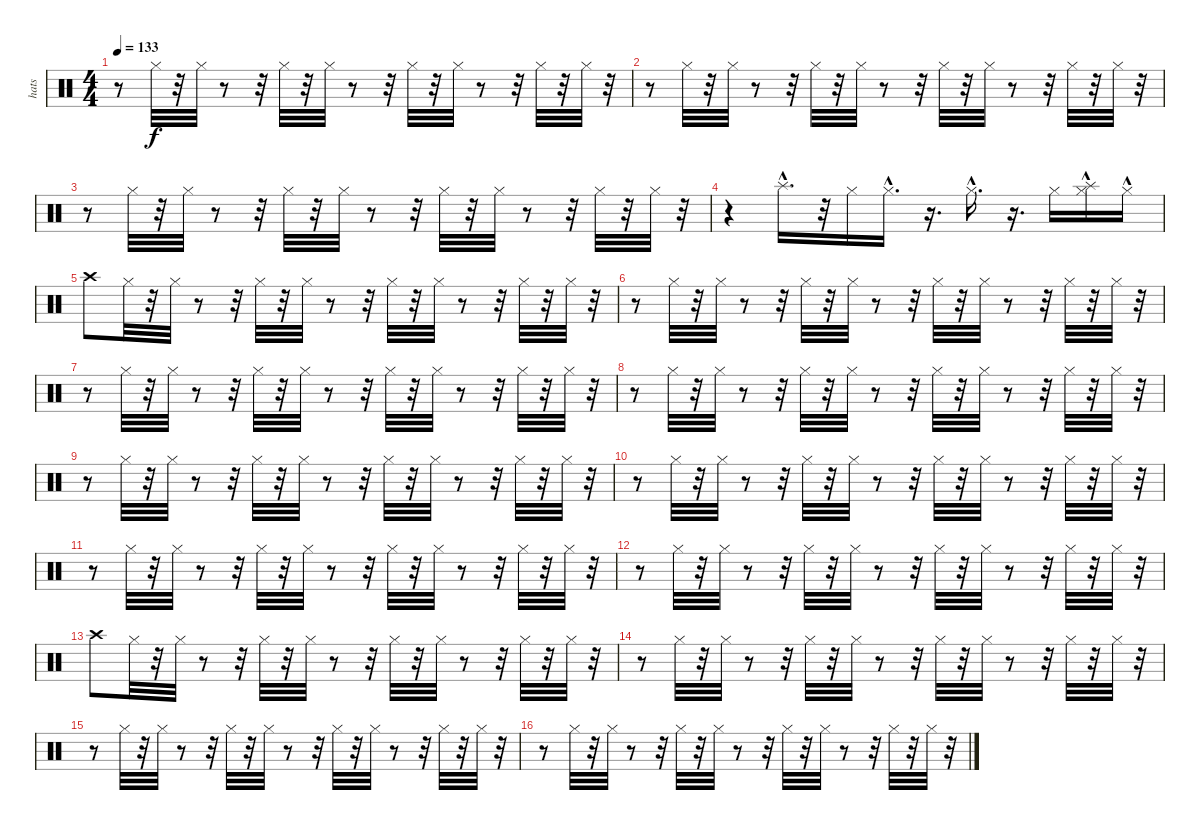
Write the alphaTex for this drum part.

\track ("hats" "hats") {instrument percussion}
\staff {score}
\articulation defaults
\ts (4 4)
\tempo 133
\clef neutral
\ks c
r.8{dy f} "Hi-Hat (closed)".32 r.32 "Hi-Hat (closed)".32 r.8 r.32 "Hi-Hat (closed)".32 r.32 "Hi-Hat (closed)".32 r.8 r.32 "Hi-Hat (closed)".32 r.32 "Hi-Hat (closed)".32 r.8 r.32 "Hi-Hat (closed)".32 r.32 "Hi-Hat (closed)".32 r.32 |
r.8 "Hi-Hat (closed)".32 r.32 "Hi-Hat (closed)".32 r.8 r.32 "Hi-Hat (closed)".32 r.32 "Hi-Hat (closed)".32 r.8 r.32 "Hi-Hat (closed)".32 r.32 "Hi-Hat (closed)".32 r.8 r.32 "Hi-Hat (closed)".32 r.32 "Hi-Hat (closed)".32 r.32 |
r.8 "Hi-Hat (closed)".32 r.32 "Hi-Hat (closed)".32 r.8 r.32 "Hi-Hat (closed)".32 r.32 "Hi-Hat (closed)".32 r.8 r.32 "Hi-Hat (closed)".32 r.32 "Hi-Hat (closed)".32 r.8 r.32 "Hi-Hat (closed)".32 r.32 "Hi-Hat (closed)".32 r.32 |
r.4 "Splash (hit)"{hac}.16{d} r.32 "Hi-Hat (closed)".16 "Hi-Hat (closed)"{hac}.16{d} r.16{d} "Hi-Hat (closed)"{hac}.16{d} r.16{d} "Hi-Hat (closed)".16 ("Hi-Hat (closed)" "Splash (hit)"{hac}).16 "Hi-Hat (closed)"{hac}.16 |
"Crash high (hit)".8 "Hi-Hat (closed)".32 r.32 "Hi-Hat (closed)".32 r.8 r.32 "Hi-Hat (closed)".32 r.32 "Hi-Hat (closed)".32 r.8 r.32 "Hi-Hat (closed)".32 r.32 "Hi-Hat (closed)".32 r.8 r.32 "Hi-Hat (closed)".32 r.32 "Hi-Hat (closed)".32 r.32 |
r.8 "Hi-Hat (closed)".32 r.32 "Hi-Hat (closed)".32 r.8 r.32 "Hi-Hat (closed)".32 r.32 "Hi-Hat (closed)".32 r.8 r.32 "Hi-Hat (closed)".32 r.32 "Hi-Hat (closed)".32 r.8 r.32 "Hi-Hat (closed)".32 r.32 "Hi-Hat (closed)".32 r.32 |
r.8 "Hi-Hat (closed)".32 r.32 "Hi-Hat (closed)".32 r.8 r.32 "Hi-Hat (closed)".32 r.32 "Hi-Hat (closed)".32 r.8 r.32 "Hi-Hat (closed)".32 r.32 "Hi-Hat (closed)".32 r.8 r.32 "Hi-Hat (closed)".32 r.32 "Hi-Hat (closed)".32 r.32 |
r.8 "Hi-Hat (closed)".32 r.32 "Hi-Hat (closed)".32 r.8 r.32 "Hi-Hat (closed)".32 r.32 "Hi-Hat (closed)".32 r.8 r.32 "Hi-Hat (closed)".32 r.32 "Hi-Hat (closed)".32 r.8 r.32 "Hi-Hat (closed)".32 r.32 "Hi-Hat (closed)".32 r.32 |
r.8 "Hi-Hat (closed)".32 r.32 "Hi-Hat (closed)".32 r.8 r.32 "Hi-Hat (closed)".32 r.32 "Hi-Hat (closed)".32 r.8 r.32 "Hi-Hat (closed)".32 r.32 "Hi-Hat (closed)".32 r.8 r.32 "Hi-Hat (closed)".32 r.32 "Hi-Hat (closed)".32 r.32 |
r.8 "Hi-Hat (closed)".32 r.32 "Hi-Hat (closed)".32 r.8 r.32 "Hi-Hat (closed)".32 r.32 "Hi-Hat (closed)".32 r.8 r.32 "Hi-Hat (closed)".32 r.32 "Hi-Hat (closed)".32 r.8 r.32 "Hi-Hat (closed)".32 r.32 "Hi-Hat (closed)".32 r.32 |
r.8 "Hi-Hat (closed)".32 r.32 "Hi-Hat (closed)".32 r.8 r.32 "Hi-Hat (closed)".32 r.32 "Hi-Hat (closed)".32 r.8 r.32 "Hi-Hat (closed)".32 r.32 "Hi-Hat (closed)".32 r.8 r.32 "Hi-Hat (closed)".32 r.32 "Hi-Hat (closed)".32 r.32 |
r.8 "Hi-Hat (closed)".32 r.32 "Hi-Hat (closed)".32 r.8 r.32 "Hi-Hat (closed)".32 r.32 "Hi-Hat (closed)".32 r.8 r.32 "Hi-Hat (closed)".32 r.32 "Hi-Hat (closed)".32 r.8 r.32 "Hi-Hat (closed)".32 r.32 "Hi-Hat (closed)".32 r.32 |
"Crash high (hit)".8 "Hi-Hat (closed)".32 r.32 "Hi-Hat (closed)".32 r.8 r.32 "Hi-Hat (closed)".32 r.32 "Hi-Hat (closed)".32 r.8 r.32 "Hi-Hat (closed)".32 r.32 "Hi-Hat (closed)".32 r.8 r.32 "Hi-Hat (closed)".32 r.32 "Hi-Hat (closed)".32 r.32 |
r.8 "Hi-Hat (closed)".32 r.32 "Hi-Hat (closed)".32 r.8 r.32 "Hi-Hat (closed)".32 r.32 "Hi-Hat (closed)".32 r.8 r.32 "Hi-Hat (closed)".32 r.32 "Hi-Hat (closed)".32 r.8 r.32 "Hi-Hat (closed)".32 r.32 "Hi-Hat (closed)".32 r.32 |
r.8 "Hi-Hat (closed)".32 r.32 "Hi-Hat (closed)".32 r.8 r.32 "Hi-Hat (closed)".32 r.32 "Hi-Hat (closed)".32 r.8 r.32 "Hi-Hat (closed)".32 r.32 "Hi-Hat (closed)".32 r.8 r.32 "Hi-Hat (closed)".32 r.32 "Hi-Hat (closed)".32 r.32 |
r.8 "Hi-Hat (closed)".32 r.32 "Hi-Hat (closed)".32 r.8 r.32 "Hi-Hat (closed)".32 r.32 "Hi-Hat (closed)".32 r.8 r.32 "Hi-Hat (closed)".32 r.32 "Hi-Hat (closed)".32 r.8 r.32 "Hi-Hat (closed)".32 r.32 "Hi-Hat (closed)".32 r.32
